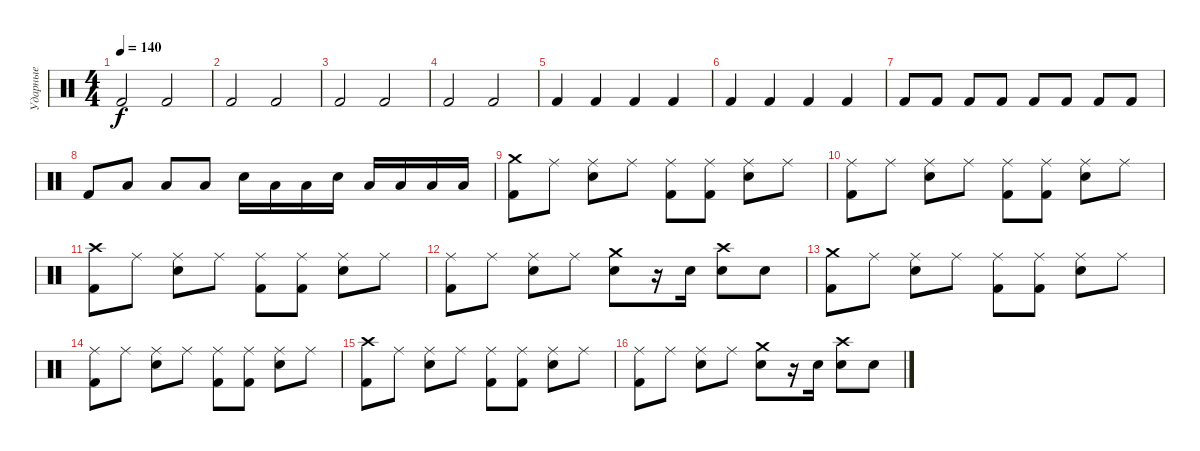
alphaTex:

\track ("Ударные" "Ударные") {instrument percussion}
\staff {score}
\articulation defaults
\ts (4 4)
\tempo 140
\clef neutral
\ks c "Kick (hit) 2".2{dy f} "Kick (hit) 2".2
|
"Kick (hit) 2".2 "Kick (hit) 2".2 |
"Kick (hit) 2".2 "Kick (hit) 2".2 |
"Kick (hit) 2".2 "Kick (hit) 2".2 |
"Kick (hit) 2".4 "Kick (hit) 2".4 "Kick (hit) 2".4 "Kick (hit) 2".4 |
"Kick (hit) 2".4 "Kick (hit) 2".4 "Kick (hit) 2".4 "Kick (hit) 2".4 |
"Kick (hit) 2".8 "Kick (hit) 2".8 "Kick (hit) 2".8 "Kick (hit) 2".8 "Kick (hit) 2".8 "Kick (hit) 2".8 "Kick (hit) 2".8 "Kick (hit) 2".8 |
"Kick (hit) 2".8 "Low Tom (hit)".8 "Low Tom (hit)".8 "Low Tom (hit)".8 "Electric Snare (hit)".16 "Low Tom (hit)".16 "Low Tom (hit)".16 "Electric Snare (hit)".16 "Low Tom (hit)".16 "Low Tom (hit)".16 "Low Tom (hit)".16 "Low Tom (hit)".16 |
("Crash medium (hit)" "Kick (hit) 2").8 "Ride (middle)".8 ("Ride (middle)" "Electric Snare (hit)").8 "Ride (middle)".8 ("Ride (middle)" "Kick (hit) 2").8 ("Ride (middle)" "Kick (hit) 2").8 ("Ride (middle)" "Electric Snare (hit)").8 "Ride (middle)".8 |
("Ride (middle)" "Kick (hit) 2").8 "Ride (middle)".8 ("Ride (middle)" "Electric Snare (hit)").8 "Ride (middle)".8 ("Ride (middle)" "Kick (hit) 2").8 ("Ride (middle)" "Kick (hit) 2").8 ("Ride (middle)" "Electric Snare (hit)").8 "Ride (middle)".8 |
("Crash high (hit)" "Kick (hit) 2").8 "Ride (middle)".8 ("Ride (middle)" "Electric Snare (hit)").8 "Ride (middle)".8 ("Ride (middle)" "Kick (hit) 2").8 ("Ride (middle)" "Kick (hit) 2").8 ("Ride (middle)" "Electric Snare (hit)").8 "Ride (middle)".8 |
("Ride (middle)" "Kick (hit) 2").8 "Ride (middle)".8 ("Ride (middle)" "Electric Snare (hit)").8 "Ride (middle)".8 ("Crash medium (hit)" "Electric Snare (hit)").8 r.16 "Electric Snare (hit)".16 ("Crash high (hit)" "Electric Snare (hit)").8 "Electric Snare (hit)".8 |
("Crash medium (hit)" "Kick (hit) 2").8 "Ride (middle)".8 ("Ride (middle)" "Electric Snare (hit)").8 "Ride (middle)".8 ("Ride (middle)" "Kick (hit) 2").8 ("Ride (middle)" "Kick (hit) 2").8 ("Ride (middle)" "Electric Snare (hit)").8 "Ride (middle)".8 |
("Ride (middle)" "Kick (hit) 2").8 "Ride (middle)".8 ("Ride (middle)" "Electric Snare (hit)").8 "Ride (middle)".8 ("Ride (middle)" "Kick (hit) 2").8 ("Ride (middle)" "Kick (hit) 2").8 ("Ride (middle)" "Electric Snare (hit)").8 "Ride (middle)".8 |
("Crash high (hit)" "Kick (hit) 2").8 "Ride (middle)".8 ("Ride (middle)" "Electric Snare (hit)").8 "Ride (middle)".8 ("Ride (middle)" "Kick (hit) 2").8 ("Ride (middle)" "Kick (hit) 2").8 ("Ride (middle)" "Electric Snare (hit)").8 "Ride (middle)".8 |
("Ride (middle)" "Kick (hit) 2").8 "Ride (middle)".8 ("Ride (middle)" "Electric Snare (hit)").8 "Ride (middle)".8 ("Crash medium (hit)" "Electric Snare (hit)").8 r.16 "Electric Snare (hit)".16 ("Crash high (hit)" "Electric Snare (hit)").8 "Electric Snare (hit)".8
